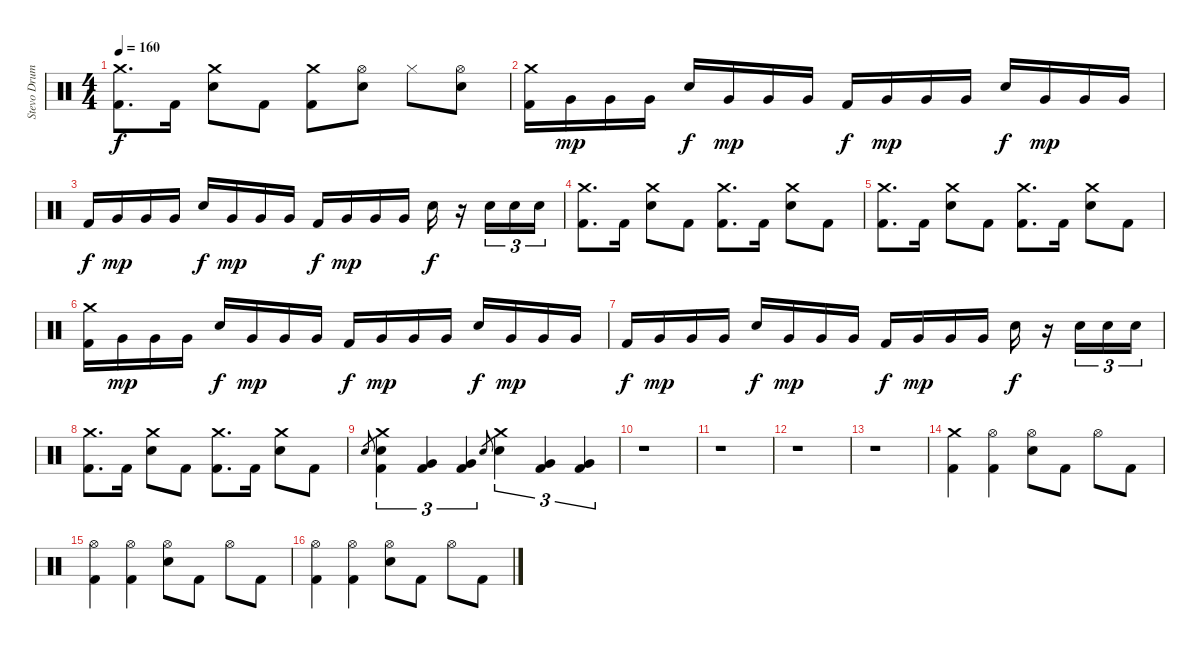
\track ("Stevo Drums" "Stevo Drum") {instrument percussion}
\staff {score}
\articulation defaults
\ts (4 4)
\tempo 160
\clef neutral
\ks c
("Crash medium (hit)" "Kick (hit) 2").8{d dy f} "Kick (hit) 2".16 ("Crash medium (hit)" "Electric Snare (hit)").8 "Kick (hit) 2".8 ("Crash medium (hit)" "Kick (hit) 2").8 ("Hi-Hat (open)" "Electric Snare (hit)").8 "Hi-Hat (closed)".8 ("Hi-Hat (open)" "Electric Snare (hit)").8 |
("Crash medium (hit)" "Kick (hit) 2").16 "Very Low Tom (hit)".16{dy mp} "Very Low Tom (hit)".16 "Very Low Tom (hit)".16 "Electric Snare (hit)".16{dy f} "Very Low Tom (hit)".16{dy mp} "Very Low Tom (hit)".16 "Very Low Tom (hit)".16 "Kick (hit) 2".16{dy f} "Very Low Tom (hit)".16{dy mp} "Very Low Tom (hit)".16 "Very Low Tom (hit)".16 "Electric Snare (hit)".16{dy f} "Very Low Tom (hit)".16{dy mp} "Very Low Tom (hit)".16 "Very Low Tom (hit)".16 |
"Kick (hit) 2".16{dy f} "Very Low Tom (hit)".16{dy mp} "Very Low Tom (hit)".16 "Very Low Tom (hit)".16 "Electric Snare (hit)".16{dy f} "Very Low Tom (hit)".16{dy mp} "Very Low Tom (hit)".16 "Very Low Tom (hit)".16 "Kick (hit) 2".16{dy f} "Very Low Tom (hit)".16{dy mp} "Very Low Tom (hit)".16 "Very Low Tom (hit)".16 "Electric Snare (hit)".16{dy f} r.16 "Electric Snare (hit)".16{tu (3 2)} "Electric Snare (hit)".16{tu (3 2)} "Electric Snare (hit)".16{tu (3 2)} |
("Crash medium (hit)" "Kick (hit) 2").8{d} "Kick (hit) 2".16 ("Crash medium (hit)" "Electric Snare (hit)").8 "Kick (hit) 2".8 ("Crash medium (hit)" "Kick (hit) 2").8{d} "Kick (hit) 2".16 ("Crash medium (hit)" "Electric Snare (hit)").8 "Kick (hit) 2".8 |
("Crash medium (hit)" "Kick (hit) 2").8{d} "Kick (hit) 2".16 ("Crash medium (hit)" "Electric Snare (hit)").8 "Kick (hit) 2".8 ("Crash medium (hit)" "Kick (hit) 2").8{d} "Kick (hit) 2".16 ("Crash medium (hit)" "Electric Snare (hit)").8 "Kick (hit) 2".8 |
("Crash medium (hit)" "Kick (hit) 2").16 "Very Low Tom (hit)".16{dy mp} "Very Low Tom (hit)".16 "Very Low Tom (hit)".16 "Electric Snare (hit)".16{dy f} "Very Low Tom (hit)".16{dy mp} "Very Low Tom (hit)".16 "Very Low Tom (hit)".16 "Kick (hit) 2".16{dy f} "Very Low Tom (hit)".16{dy mp} "Very Low Tom (hit)".16 "Very Low Tom (hit)".16 "Electric Snare (hit)".16{dy f} "Very Low Tom (hit)".16{dy mp} "Very Low Tom (hit)".16 "Very Low Tom (hit)".16 |
"Kick (hit) 2".16{dy f} "Very Low Tom (hit)".16{dy mp} "Very Low Tom (hit)".16 "Very Low Tom (hit)".16 "Electric Snare (hit)".16{dy f} "Very Low Tom (hit)".16{dy mp} "Very Low Tom (hit)".16 "Very Low Tom (hit)".16 "Kick (hit) 2".16{dy f} "Very Low Tom (hit)".16{dy mp} "Very Low Tom (hit)".16 "Very Low Tom (hit)".16 "Electric Snare (hit)".16{dy f} r.16 "Electric Snare (hit)".16{tu (3 2)} "Electric Snare (hit)".16{tu (3 2)} "Electric Snare (hit)".16{tu (3 2)} |
("Crash medium (hit)" "Kick (hit) 2").8{d} "Kick (hit) 2".16 ("Crash medium (hit)" "Electric Snare (hit)").8 "Kick (hit) 2".8 ("Crash medium (hit)" "Kick (hit) 2").8{d} "Kick (hit) 2".16 ("Crash medium (hit)" "Electric Snare (hit)").8 "Kick (hit) 2".8 |
"Electric Snare (hit)".8{gr} ("Crash medium (hit)" "Electric Snare (hit)" "Kick (hit) 2").4{tu (3 2)} ("Very Low Tom (hit)" "Kick (hit) 2").4{tu (3 2)} ("Very Low Tom (hit)" "Kick (hit) 2").4{tu (3 2)} "Electric Snare (hit)".8{gr} ("Crash medium (hit)" "Electric Snare (hit)").4{tu (3 2)} ("Very Low Tom (hit)" "Kick (hit) 2").4{tu (3 2)} ("Very Low Tom (hit)" "Kick (hit) 2").4{tu (3 2)} |
r.1 |
r.1 |
r.1 |
r.1 |
("Crash medium (hit)" "Kick (hit) 2").4 ("Hi-Hat (open)" "Kick (hit) 2").4 ("Electric Snare (hit)" "Hi-Hat (open)").8 "Kick (hit) 2".8 "Hi-Hat (open)".8 "Kick (hit) 2".8 |
("Hi-Hat (open)" "Kick (hit) 2").4 ("Hi-Hat (open)" "Kick (hit) 2").4 ("Electric Snare (hit)" "Hi-Hat (open)").8 "Kick (hit) 2".8 "Hi-Hat (open)".8 "Kick (hit) 2".8 |
("Hi-Hat (open)" "Kick (hit) 2").4 ("Hi-Hat (open)" "Kick (hit) 2").4 ("Electric Snare (hit)" "Hi-Hat (open)").8 "Kick (hit) 2".8 "Hi-Hat (open)".8 "Kick (hit) 2".8
